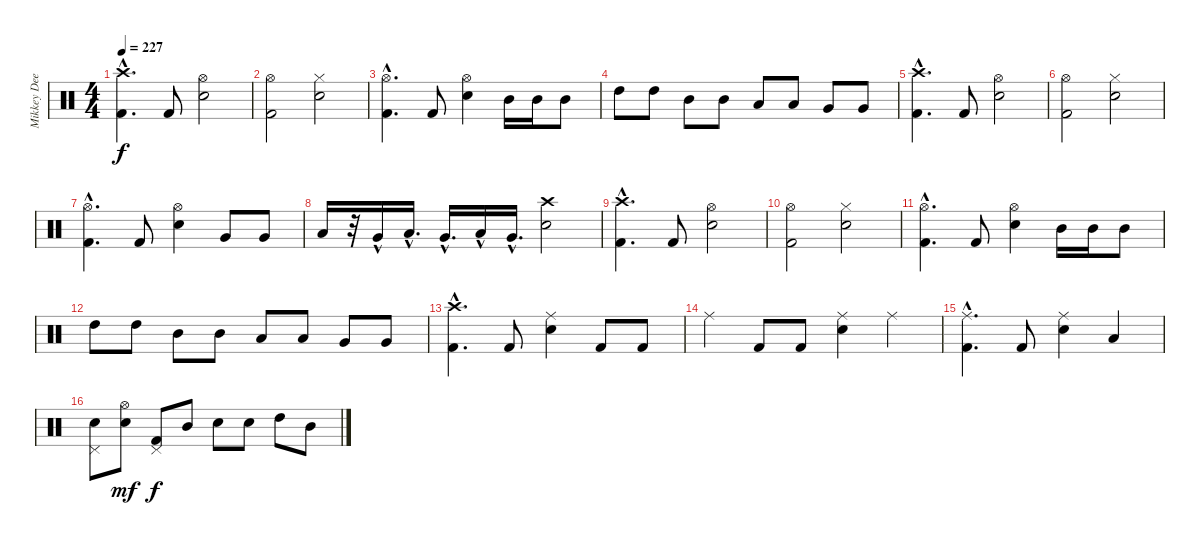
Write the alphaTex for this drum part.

\track ("Mikkey Dee" "Mikkey Dee") {instrument percussion}
\staff {score}
\articulation defaults
\ts (4 4)
\tempo 227
\clef neutral
\ks c
("Kick (hit) 2"{hac} "Crash high (hit)").4{d dy f} "Kick (hit) 2".8 ("Hi-Hat (open)" "Snare (hit) 2").2 |
("Hi-Hat (open)" "Kick (hit) 2").2 ("Hi-Hat (closed)" "Electric Snare (hit)").2 |
("Hi-Hat (open)" "Kick (hit) 2"{hac}).4{d} "Kick (hit) 2".8 ("Snare (hit) 2" "Hi-Hat (open)").4 "Mid Tom (hit)".16 "Mid Tom (hit)".16 "Mid Tom (hit)".8 |
"High Tom (hit)".8 "High Tom (hit)".8 "Mid Tom (hit)".8 "Mid Tom (hit)".8 "Low Tom (hit)".8 "Low Tom (hit)".8 "Very Low Tom (hit)".8 "Very Low Tom (hit)".8 |
("Kick (hit) 2"{hac} "Crash high (hit)").4{d} "Kick (hit) 2".8 ("Hi-Hat (open)" "Snare (hit) 2").2 |
("Kick (hit) 2" "Hi-Hat (open)").2 ("Electric Snare (hit)" "Hi-Hat (closed)").2 |
("Kick (hit) 2"{hac} "Hi-Hat (open)").4{d} "Kick (hit) 2".8 ("Hi-Hat (open)" "Snare (hit) 2").4 "Very Low Tom (hit)".8 "Very Low Tom (hit)".8 |
"Low Tom (hit)".16 r.32 "Very Low Tom (hit)"{hac}.16 "Low Tom (hit)"{hac}.16{d} "Very Low Tom (hit)"{hac}.16{d} "Low Tom (hit)"{hac}.16 "Very Low Tom (hit)"{hac}.16{d} ("Crash high (hit)" "Electric Snare (hit)").2 |
("Kick (hit) 2"{hac} "Crash high (hit)").4{d} "Kick (hit) 2".8 ("Hi-Hat (open)" "Snare (hit) 2").2 |
("Hi-Hat (open)" "Kick (hit) 2").2 ("Hi-Hat (closed)" "Electric Snare (hit)").2 |
("Hi-Hat (open)" "Kick (hit) 2"{hac}).4{d} "Kick (hit) 2".8 ("Hi-Hat (open)" "Snare (hit) 2").4 "Mid Tom (hit)".16 "Mid Tom (hit)".16 "Mid Tom (hit)".8 |
"High Tom (hit)".8 "High Tom (hit)".8 "Mid Tom (hit)".8 "Mid Tom (hit)".8 "Low Tom (hit)".8 "Low Tom (hit)".8 "Very Low Tom (hit)".8 "Very Low Tom (hit)".8 |
("Kick (hit) 2"{hac} "Crash high (hit)").4{d} "Kick (hit) 2".8 ("Electric Snare (hit)" "Ride (middle)").4 "Kick (hit) 2".8 "Kick (hit) 2".8 |
"Ride (middle)".4 "Kick (hit) 2".8 "Kick (hit) 2".8 ("Electric Snare (hit)" "Ride (middle)").4 "Ride (middle)".4 |
("Ride (middle)" "Kick (hit) 2"{hac}).4{d} "Kick (hit) 2".8 ("Electric Snare (hit)" "Ride (middle)").4 "Low Floor Tom (hit)".4 |
("Pedal Hi-Hat (hit)" "Electric Snare (hit)").8 ("Electric Snare (hit)" "Hi-Hat (open)").8{dy mf} ("Kick (hit) 2" "Pedal Hi-Hat (hit)").8{dy f} "Mid Tom (hit)".8 "Electric Snare (hit)".8 "Electric Snare (hit)".8 "High Tom (hit)".8 "Mid Tom (hit)".8
